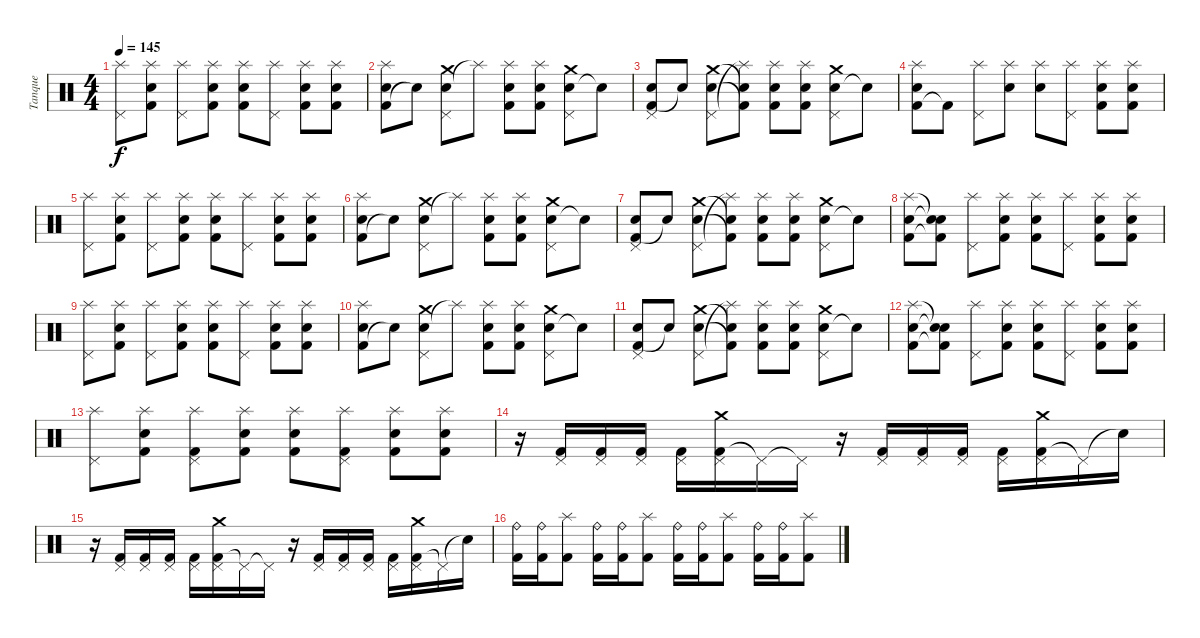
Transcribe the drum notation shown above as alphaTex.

\track ("Tanque" "Tanque") {instrument percussion}
\staff {score}
\articulation defaults
\ts (4 4)
\tempo 145
\clef neutral
\ks c
("Pedal Hi-Hat (hit)" "Splash (hit)").8{dy f} ("Kick (hit) 2" "Snare (hit) 2" "Splash (hit)").8 ("Pedal Hi-Hat (hit)" "Splash (hit)").8 ("Kick (hit) 2" "Snare (hit) 2" "Splash (hit)").8 ("Kick (hit) 2" "Snare (hit) 2" "Splash (hit)").8 ("Pedal Hi-Hat (hit)" "Splash (hit)").8 ("Kick (hit) 2" "Snare (hit) 2" "Splash (hit)").8 ("Kick (hit) 2" "Snare (hit) 2" "Splash (hit)").8 |
("Kick (hit) 2" "Electric Snare (hit)" "Splash (hit)").8 "Snare (hit)"{t}.8 ("Snare (hit) 2" "Crash medium (hit)" "Pedal Hi-Hat (hit)").8 "Splash (hit)"{t}.8 ("Kick (hit) 2" "Electric Snare (hit)" "Splash (hit)").8 ("Kick (hit) 2" "Electric Snare (hit)" "Splash (hit)").8 ("Snare (hit) 2" "Crash medium (hit)" "Pedal Hi-Hat (hit)").8 "Snare (hit)"{t}.8 |
("Kick (hit) 2" "Electric Snare (hit)" "Pedal Hi-Hat (hit)").8 "Snare (hit)"{t}.8 ("Snare (hit) 2" "Crash medium (hit)" "Pedal Hi-Hat (hit)").8 ("Kick (hit) 2"{t} "Electric Snare (hit)"{t} "Splash (hit)"{t}).8 ("Kick (hit) 2" "Electric Snare (hit)" "Splash (hit)").8 ("Kick (hit) 2" "Electric Snare (hit)" "Splash (hit)").8 ("Snare (hit) 2" "Crash medium (hit)" "Pedal Hi-Hat (hit)").8 "Snare (hit)"{t}.8 |
("Kick (hit) 2" "Snare (hit) 2" "Splash (hit)").8 "Kick (hit) 2"{t}.8 ("Pedal Hi-Hat (hit)" "Splash (hit)").8 ("Snare (hit) 2" "Splash (hit)").8 ("Snare (hit) 2" "Splash (hit)").8 ("Pedal Hi-Hat (hit)" "Splash (hit)").8 ("Kick (hit) 2" "Snare (hit) 2" "Splash (hit)").8 ("Kick (hit) 2" "Snare (hit) 2" "Splash (hit)").8 |
("Pedal Hi-Hat (hit)" "Splash (hit)").8 ("Kick (hit) 2" "Snare (hit) 2" "Splash (hit)").8 ("Pedal Hi-Hat (hit)" "Splash (hit)").8 ("Kick (hit) 2" "Snare (hit) 2" "Splash (hit)").8 ("Kick (hit) 2" "Snare (hit) 2" "Splash (hit)").8 ("Pedal Hi-Hat (hit)" "Splash (hit)").8 ("Kick (hit) 2" "Snare (hit) 2" "Splash (hit)").8 ("Kick (hit) 2" "Snare (hit) 2" "Splash (hit)").8 |
("Kick (hit) 2" "Electric Snare (hit)" "Splash (hit)").8 "Snare (hit)"{t}.8 ("Snare (hit) 2" "Crash medium (hit)" "Pedal Hi-Hat (hit)").8 "Splash (hit)"{t}.8 ("Kick (hit) 2" "Electric Snare (hit)" "Splash (hit)").8 ("Kick (hit) 2" "Electric Snare (hit)" "Splash (hit)").8 ("Snare (hit) 2" "Crash medium (hit)" "Pedal Hi-Hat (hit)").8 "Snare (hit)"{t}.8 |
("Kick (hit) 2" "Electric Snare (hit)" "Pedal Hi-Hat (hit)").8 "Snare (hit)"{t}.8 ("Snare (hit) 2" "Crash medium (hit)" "Pedal Hi-Hat (hit)").8 ("Kick (hit) 2"{t} "Electric Snare (hit)"{t} "Splash (hit)"{t}).8 ("Kick (hit) 2" "Electric Snare (hit)" "Splash (hit)").8 ("Kick (hit) 2" "Electric Snare (hit)" "Splash (hit)").8 ("Snare (hit) 2" "Crash medium (hit)" "Pedal Hi-Hat (hit)").8 "Snare (hit)"{t}.8 |
("Kick (hit) 2" "Snare (hit) 2" "Splash (hit)").8 ("Kick (hit) 2"{t} "Snare (hit)"{t} "Snare (hit)"{t}).8 ("Pedal Hi-Hat (hit)" "Splash (hit)").8 ("Kick (hit) 2" "Snare (hit) 2" "Splash (hit)").8 ("Kick (hit) 2" "Snare (hit) 2" "Splash (hit)").8 ("Pedal Hi-Hat (hit)" "Splash (hit)").8 ("Kick (hit) 2" "Snare (hit) 2" "Splash (hit)").8 ("Kick (hit) 2" "Snare (hit) 2" "Splash (hit)").8 |
("Pedal Hi-Hat (hit)" "Splash (hit)").8 ("Kick (hit) 2" "Snare (hit) 2" "Splash (hit)").8 ("Pedal Hi-Hat (hit)" "Splash (hit)").8 ("Kick (hit) 2" "Snare (hit) 2" "Splash (hit)").8 ("Kick (hit) 2" "Snare (hit) 2" "Splash (hit)").8 ("Pedal Hi-Hat (hit)" "Splash (hit)").8 ("Kick (hit) 2" "Snare (hit) 2" "Splash (hit)").8 ("Kick (hit) 2" "Snare (hit) 2" "Splash (hit)").8 |
("Kick (hit) 2" "Electric Snare (hit)" "Splash (hit)").8 "Snare (hit)"{t}.8 ("Snare (hit) 2" "Crash medium (hit)" "Pedal Hi-Hat (hit)").8 "Splash (hit)"{t}.8 ("Kick (hit) 2" "Electric Snare (hit)" "Splash (hit)").8 ("Kick (hit) 2" "Electric Snare (hit)" "Splash (hit)").8 ("Snare (hit) 2" "Crash medium (hit)" "Pedal Hi-Hat (hit)").8 "Snare (hit)"{t}.8 |
("Kick (hit) 2" "Electric Snare (hit)" "Pedal Hi-Hat (hit)").8 "Snare (hit)"{t}.8 ("Snare (hit) 2" "Crash medium (hit)" "Pedal Hi-Hat (hit)").8 ("Kick (hit) 2"{t} "Electric Snare (hit)"{t} "Splash (hit)"{t}).8 ("Kick (hit) 2" "Electric Snare (hit)" "Splash (hit)").8 ("Kick (hit) 2" "Electric Snare (hit)" "Splash (hit)").8 ("Snare (hit) 2" "Crash medium (hit)" "Pedal Hi-Hat (hit)").8 "Snare (hit)"{t}.8 |
("Kick (hit) 2" "Snare (hit) 2" "Splash (hit)").8 ("Kick (hit) 2"{t} "Snare (hit)"{t} "Snare (hit)"{t}).8 ("Pedal Hi-Hat (hit)" "Splash (hit)").8 ("Kick (hit) 2" "Snare (hit) 2" "Splash (hit)").8 ("Kick (hit) 2" "Snare (hit) 2" "Splash (hit)").8 ("Pedal Hi-Hat (hit)" "Splash (hit)").8 ("Kick (hit) 2" "Snare (hit) 2" "Splash (hit)").8 ("Kick (hit) 2" "Snare (hit) 2" "Splash (hit)").8 |
("Pedal Hi-Hat (hit)" "Splash (hit)").8 ("Kick (hit) 2" "Snare (hit) 2" "Splash (hit)").8 ("Kick (hit) 2" "Pedal Hi-Hat (hit)" "Splash (hit)").8 ("Kick (hit) 2" "Snare (hit) 2" "Splash (hit)").8 ("Kick (hit) 2" "Snare (hit) 2" "Splash (hit)").8 ("Kick (hit) 2" "Pedal Hi-Hat (hit)" "Splash (hit)").8 ("Kick (hit) 2" "Snare (hit) 2" "Splash (hit)").8 ("Kick (hit) 2" "Snare (hit) 2" "Splash (hit)").8 |
r.16 ("Kick (hit) 2" "Pedal Hi-Hat (hit)").16 ("Kick (hit) 2" "Pedal Hi-Hat (hit)").16 ("Kick (hit) 2" "Pedal Hi-Hat (hit)").16 ("Kick (hit) 2" "Pedal Hi-Hat (hit)").16 ("Kick (hit) 2" "Pedal Hi-Hat (hit)" "Crash medium (hit)").16 "Pedal Hi-Hat (hit)"{t}.16 "Pedal Hi-Hat (hit)"{t}.16 r.16 ("Kick (hit) 2" "Pedal Hi-Hat (hit)").16 ("Kick (hit) 2" "Pedal Hi-Hat (hit)").16 ("Kick (hit) 2" "Pedal Hi-Hat (hit)").16 ("Kick (hit) 2" "Pedal Hi-Hat (hit)").16 ("Kick (hit) 2" "Pedal Hi-Hat (hit)" "Crash medium (hit)").16 "Pedal Hi-Hat (hit)"{t}.16 "Snare (hit)"{t}.16 |
r.16 ("Kick (hit) 2" "Pedal Hi-Hat (hit)").16 ("Kick (hit) 2" "Pedal Hi-Hat (hit)").16 ("Kick (hit) 2" "Pedal Hi-Hat (hit)").16 ("Kick (hit) 2" "Pedal Hi-Hat (hit)").16 ("Kick (hit) 2" "Pedal Hi-Hat (hit)" "Crash medium (hit)").16 "Pedal Hi-Hat (hit)"{t}.16 "Pedal Hi-Hat (hit)"{t}.16 r.16 ("Kick (hit) 2" "Pedal Hi-Hat (hit)").16 ("Kick (hit) 2" "Pedal Hi-Hat (hit)").16 ("Kick (hit) 2" "Pedal Hi-Hat (hit)").16 ("Kick (hit) 2" "Pedal Hi-Hat (hit)").16 ("Kick (hit) 2" "Pedal Hi-Hat (hit)" "Crash medium (hit)").16 "Pedal Hi-Hat (hit)"{t}.16 "Snare (hit)"{t}.16 |
("Kick (hit) 2" "Ride (bell)").16 ("Kick (hit) 2" "Ride (bell)").16 ("Kick (hit) 2" "Splash (hit)").8 ("Kick (hit) 2" "Ride (bell)").16 ("Kick (hit) 2" "Ride (bell)").16 ("Kick (hit) 2" "Splash (hit)").8 ("Kick (hit) 2" "Ride (bell)").16 ("Kick (hit) 2" "Ride (bell)").16 ("Kick (hit) 2" "Splash (hit)").8 ("Kick (hit) 2" "Ride (bell)").16 ("Kick (hit) 2" "Ride (bell)").16 ("Kick (hit) 2" "Splash (hit)").8
